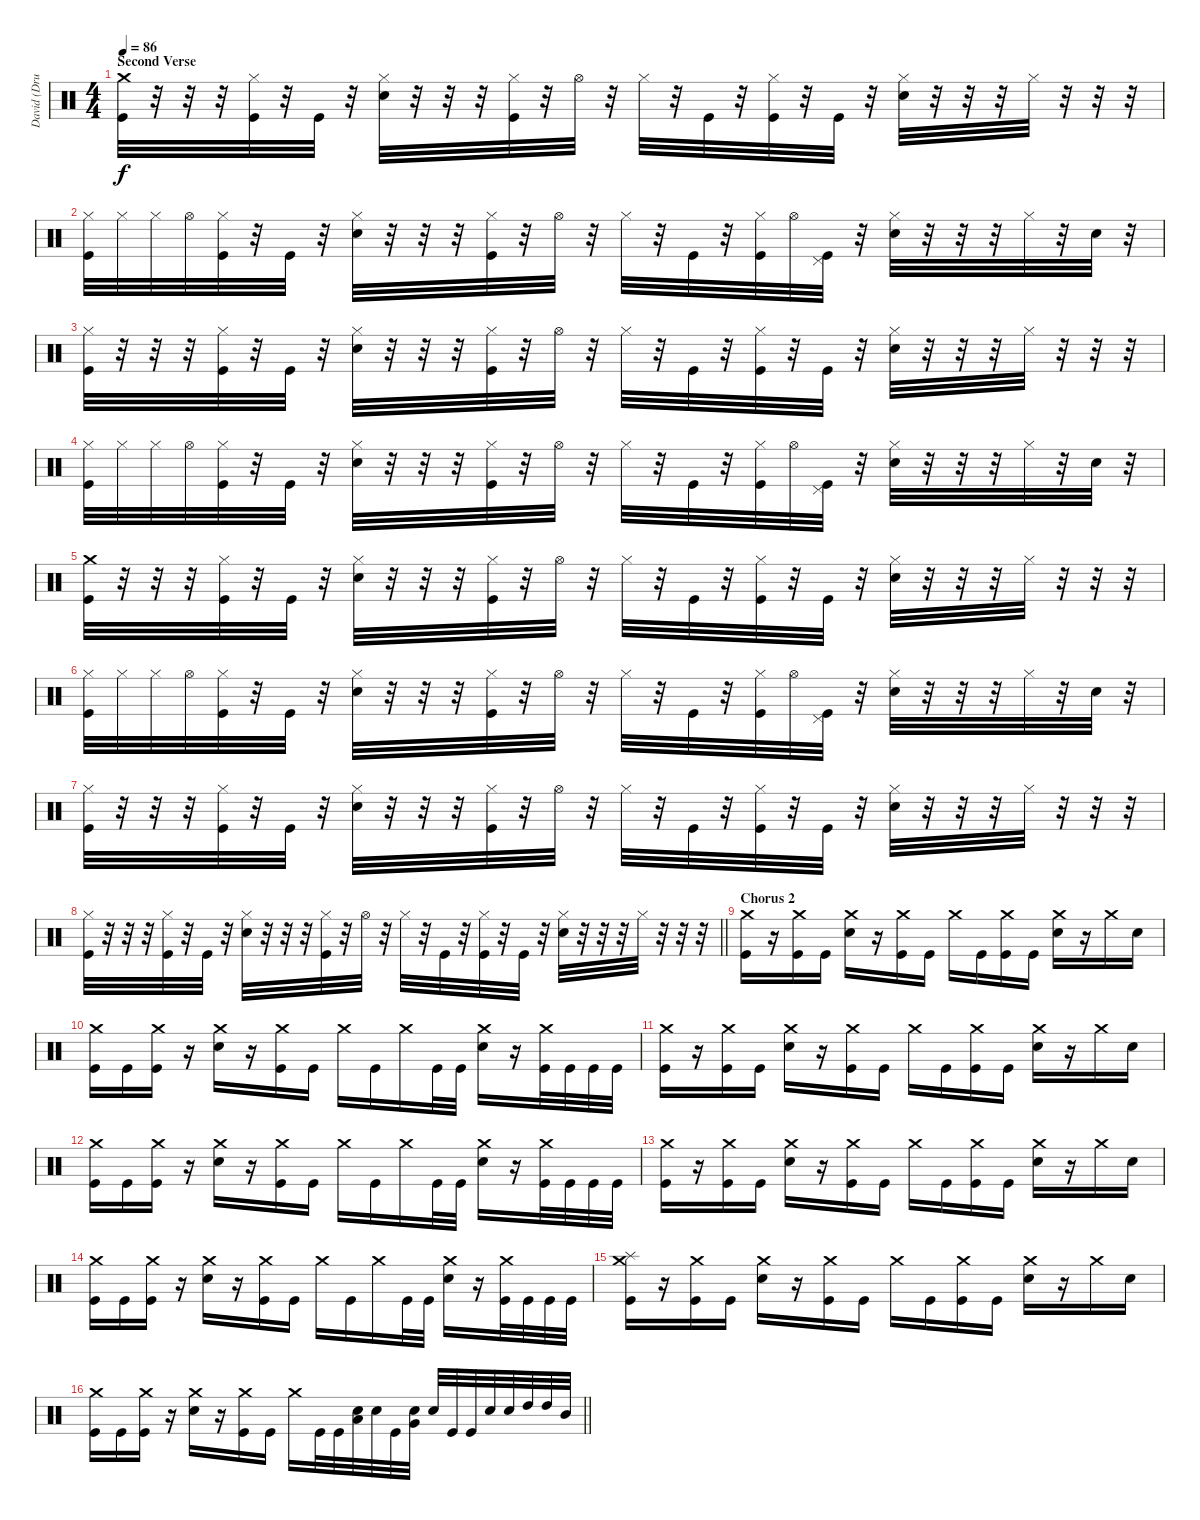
\track ("David (Drums)" "David (Dru") {instrument percussion}
\staff {score}
\articulation defaults
\ts (4 4)
\section ("" "Second Verse")
\tempo 86
\clef neutral
\ks c
("Crash medium (hit)" "Kick (hit)").32{dy f} r.32 r.32 r.32 ("Hi-Hat (closed)" "Kick (hit)").32 r.32 "Kick (hit)".32 r.32 ("Hi-Hat (closed)" "Electric Snare (hit)").32 r.32 r.32 r.32 ("Hi-Hat (closed)" "Kick (hit)").32 r.32 "Hi-Hat (open)".32 r.32 "Hi-Hat (closed)".32 r.32 "Kick (hit)".32 r.32 ("Hi-Hat (closed)" "Kick (hit)").32 r.32 "Kick (hit)".32 r.32 ("Hi-Hat (closed)" "Electric Snare (hit)").32 r.32 r.32 r.32 "Hi-Hat (closed)".32 r.32 r.32 r.32 |
("Hi-Hat (closed)" "Kick (hit)").32 "Hi-Hat (closed)".32 "Hi-Hat (closed)".32 "Hi-Hat (open)".32 ("Hi-Hat (closed)" "Kick (hit)").32 r.32 "Kick (hit)".32 r.32 ("Hi-Hat (closed)" "Electric Snare (hit)").32 r.32 r.32 r.32 ("Hi-Hat (closed)" "Kick (hit)").32 r.32 "Hi-Hat (open)".32 r.32 "Hi-Hat (closed)".32 r.32 "Kick (hit)".32 r.32 ("Hi-Hat (closed)" "Kick (hit)").32 "Hi-Hat (open)".32 ("Pedal Hi-Hat (hit)" "Kick (hit)").32 r.32 ("Hi-Hat (closed)" "Electric Snare (hit)").32 r.32 r.32 r.32 "Hi-Hat (closed)".32 r.32 "Electric Snare (hit)".32 r.32 |
("Hi-Hat (closed)" "Kick (hit)").32 r.32 r.32 r.32 ("Hi-Hat (closed)" "Kick (hit)").32 r.32 "Kick (hit)".32 r.32 ("Hi-Hat (closed)" "Electric Snare (hit)").32 r.32 r.32 r.32 ("Hi-Hat (closed)" "Kick (hit)").32 r.32 "Hi-Hat (open)".32 r.32 "Hi-Hat (closed)".32 r.32 "Kick (hit)".32 r.32 ("Hi-Hat (closed)" "Kick (hit)").32 r.32 "Kick (hit)".32 r.32 ("Hi-Hat (closed)" "Electric Snare (hit)").32 r.32 r.32 r.32 "Hi-Hat (closed)".32 r.32 r.32 r.32 |
("Hi-Hat (closed)" "Kick (hit)").32 "Hi-Hat (closed)".32 "Hi-Hat (closed)".32 "Hi-Hat (open)".32 ("Hi-Hat (closed)" "Kick (hit)").32 r.32 "Kick (hit)".32 r.32 ("Hi-Hat (closed)" "Electric Snare (hit)").32 r.32 r.32 r.32 ("Hi-Hat (closed)" "Kick (hit)").32 r.32 "Hi-Hat (open)".32 r.32 "Hi-Hat (closed)".32 r.32 "Kick (hit)".32 r.32 ("Hi-Hat (closed)" "Kick (hit)").32 "Hi-Hat (open)".32 ("Pedal Hi-Hat (hit)" "Kick (hit)").32 r.32 ("Hi-Hat (closed)" "Electric Snare (hit)").32 r.32 r.32 r.32 "Hi-Hat (closed)".32 r.32 "Electric Snare (hit)".32 r.32 |
("Crash medium (hit)" "Kick (hit)").32 r.32 r.32 r.32 ("Hi-Hat (closed)" "Kick (hit)").32 r.32 "Kick (hit)".32 r.32 ("Hi-Hat (closed)" "Electric Snare (hit)").32 r.32 r.32 r.32 ("Hi-Hat (closed)" "Kick (hit)").32 r.32 "Hi-Hat (open)".32 r.32 "Hi-Hat (closed)".32 r.32 "Kick (hit)".32 r.32 ("Hi-Hat (closed)" "Kick (hit)").32 r.32 "Kick (hit)".32 r.32 ("Hi-Hat (closed)" "Electric Snare (hit)").32 r.32 r.32 r.32 "Hi-Hat (closed)".32 r.32 r.32 r.32 |
("Hi-Hat (closed)" "Kick (hit)").32 "Hi-Hat (closed)".32 "Hi-Hat (closed)".32 "Hi-Hat (open)".32 ("Hi-Hat (closed)" "Kick (hit)").32 r.32 "Kick (hit)".32 r.32 ("Hi-Hat (closed)" "Electric Snare (hit)").32 r.32 r.32 r.32 ("Hi-Hat (closed)" "Kick (hit)").32 r.32 "Hi-Hat (open)".32 r.32 "Hi-Hat (closed)".32 r.32 "Kick (hit)".32 r.32 ("Hi-Hat (closed)" "Kick (hit)").32 "Hi-Hat (open)".32 ("Pedal Hi-Hat (hit)" "Kick (hit)").32 r.32 ("Hi-Hat (closed)" "Electric Snare (hit)").32 r.32 r.32 r.32 "Hi-Hat (closed)".32 r.32 "Electric Snare (hit)".32 r.32 |
("Hi-Hat (closed)" "Kick (hit)").32 r.32 r.32 r.32 ("Hi-Hat (closed)" "Kick (hit)").32 r.32 "Kick (hit)".32 r.32 ("Hi-Hat (closed)" "Electric Snare (hit)").32 r.32 r.32 r.32 ("Hi-Hat (closed)" "Kick (hit)").32 r.32 "Hi-Hat (open)".32 r.32 "Hi-Hat (closed)".32 r.32 "Kick (hit)".32 r.32 ("Hi-Hat (closed)" "Kick (hit)").32 r.32 "Kick (hit)".32 r.32 ("Hi-Hat (closed)" "Electric Snare (hit)").32 r.32 r.32 r.32 "Hi-Hat (closed)".32 r.32 r.32 r.32 |
\barLineRight lightlight
("Hi-Hat (closed)" "Kick (hit)").32 r.32 r.32 r.32 ("Hi-Hat (closed)" "Kick (hit)").32 r.32 "Kick (hit)".32 r.32 ("Hi-Hat (closed)" "Electric Snare (hit)").32 r.32 r.32 r.32 ("Hi-Hat (closed)" "Kick (hit)").32 r.32 "Hi-Hat (open)".32 r.32 "Hi-Hat (closed)".32 r.32 "Kick (hit)".32 r.32 ("Hi-Hat (closed)" "Kick (hit)").32 r.32 "Kick (hit)".32 r.32 ("Hi-Hat (closed)" "Electric Snare (hit)").32 r.32 r.32 r.32 "Hi-Hat (closed)".32 r.32 r.32 r.32 |
\section ("" "Chorus 2")
("Crash medium (hit)" "Kick (hit)").16 r.16 ("Crash medium (hit)" "Kick (hit)").16 "Kick (hit)".16 ("Crash medium (hit)" "Electric Snare (hit)").16 r.16 ("Crash medium (hit)" "Kick (hit)").16 "Kick (hit)".16 "Crash medium (hit)".16 "Kick (hit)".16 ("Crash medium (hit)" "Kick (hit)").16 "Kick (hit)".16 ("Crash medium (hit)" "Electric Snare (hit)").16 r.16 "Crash medium (hit)".16 "Electric Snare (hit)".16 |
("Crash medium (hit)" "Kick (hit)").16 "Kick (hit)".16 ("Crash medium (hit)" "Kick (hit)").16 r.16 ("Crash medium (hit)" "Electric Snare (hit)").16 r.16 ("Crash medium (hit)" "Kick (hit)").16 "Kick (hit)".16 "Crash medium (hit)".16 "Kick (hit)".16 "Crash medium (hit)".16 "Kick (hit)".32 "Kick (hit)".32 ("Crash medium (hit)" "Electric Snare (hit)").16 r.16 ("Crash medium (hit)" "Kick (hit)").32 "Kick (hit)".32 "Kick (hit)".32 "Kick (hit)".32 |
("Crash medium (hit)" "Kick (hit)").16 r.16 ("Crash medium (hit)" "Kick (hit)").16 "Kick (hit)".16 ("Crash medium (hit)" "Electric Snare (hit)").16 r.16 ("Crash medium (hit)" "Kick (hit)").16 "Kick (hit)".16 "Crash medium (hit)".16 "Kick (hit)".16 ("Crash medium (hit)" "Kick (hit)").16 "Kick (hit)".16 ("Crash medium (hit)" "Electric Snare (hit)").16 r.16 "Crash medium (hit)".16 "Electric Snare (hit)".16 |
("Crash medium (hit)" "Kick (hit)").16 "Kick (hit)".16 ("Crash medium (hit)" "Kick (hit)").16 r.16 ("Crash medium (hit)" "Electric Snare (hit)").16 r.16 ("Crash medium (hit)" "Kick (hit)").16 "Kick (hit)".16 "Crash medium (hit)".16 "Kick (hit)".16 "Crash medium (hit)".16 "Kick (hit)".32 "Kick (hit)".32 ("Crash medium (hit)" "Electric Snare (hit)").16 r.16 ("Crash medium (hit)" "Kick (hit)").32 "Kick (hit)".32 "Kick (hit)".32 "Kick (hit)".32 |
("Crash medium (hit)" "Kick (hit)").16 r.16 ("Crash medium (hit)" "Kick (hit)").16 "Kick (hit)".16 ("Crash medium (hit)" "Electric Snare (hit)").16 r.16 ("Crash medium (hit)" "Kick (hit)").16 "Kick (hit)".16 "Crash medium (hit)".16 "Kick (hit)".16 ("Crash medium (hit)" "Kick (hit)").16 "Kick (hit)".16 ("Crash medium (hit)" "Electric Snare (hit)").16 r.16 "Crash medium (hit)".16 "Electric Snare (hit)".16 |
("Crash medium (hit)" "Kick (hit)").16 "Kick (hit)".16 ("Crash medium (hit)" "Kick (hit)").16 r.16 ("Crash medium (hit)" "Electric Snare (hit)").16 r.16 ("Crash medium (hit)" "Kick (hit)").16 "Kick (hit)".16 "Crash medium (hit)".16 "Kick (hit)".16 "Crash medium (hit)".16 "Kick (hit)".32 "Kick (hit)".32 ("Crash medium (hit)" "Electric Snare (hit)").16 r.16 ("Crash medium (hit)" "Kick (hit)").32 "Kick (hit)".32 "Kick (hit)".32 "Kick (hit)".32 |
("Splash (hit)" "Crash medium (hit)" "Kick (hit)").16 r.16 ("Crash medium (hit)" "Kick (hit)").16 "Kick (hit)".16 ("Crash medium (hit)" "Electric Snare (hit)").16 r.16 ("Crash medium (hit)" "Kick (hit)").16 "Kick (hit)".16 "Crash medium (hit)".16 "Kick (hit)".16 ("Crash medium (hit)" "Kick (hit)").16 "Kick (hit)".16 ("Crash medium (hit)" "Electric Snare (hit)").16 r.16 "Crash medium (hit)".16 "Electric Snare (hit)".16 |
\barLineRight lightlight
("Crash medium (hit)" "Kick (hit)").16 "Kick (hit)".16 ("Crash medium (hit)" "Kick (hit)").16 r.16 ("Crash medium (hit)" "Electric Snare (hit)").16 r.16 ("Crash medium (hit)" "Kick (hit)").16 "Kick (hit)".16 "Crash medium (hit)".16 "Kick (hit)".32 "Kick (hit)".32 ("Low Floor Tom (hit)" "Electric Snare (hit)").32 "Electric Snare (hit)".32 "Kick (hit)".32 ("Very Low Tom (hit)" "Electric Snare (hit)").32 "Electric Snare (hit)".32 "Kick (hit)".32 "Kick (hit)".32 "Electric Snare (hit)".32 "Electric Snare (hit)".32 "High Tom (hit)".32 "High Tom (hit)".32 "Mid Tom (hit)".32
